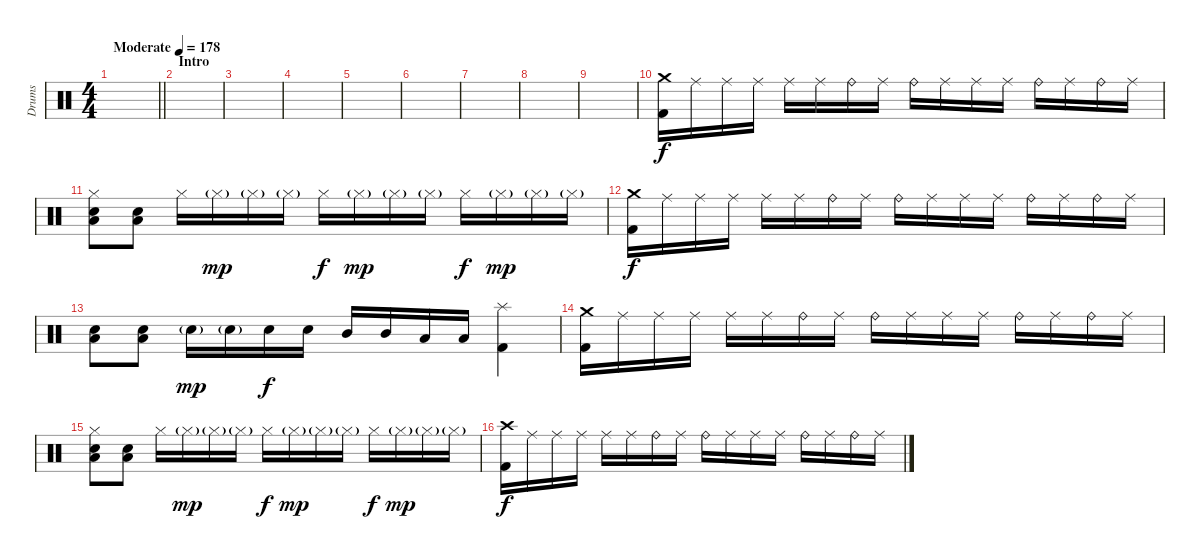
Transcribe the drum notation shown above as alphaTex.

\track ("Drums" "Drums") {instrument percussion}
\staff {score}
\articulation defaults
\ts (4 4)
\tempo (178 "Moderate")
\clef neutral
\barLineRight lightlight
\ks c
|
\section ("" "Intro")
|
|
|
|
|
|
|
|
("Crash medium (hit)" "Kick (hit) 2").16 "Ride (middle)".16 "Ride (middle)".16 "Ride (middle)".16 "Ride (middle)".16 "Ride (middle)".16 "Ride (bell)".16 "Ride (middle)".16 "Ride (bell)".16 "Ride (middle)".16 "Ride (middle)".16 "Ride (middle)".16 "Ride (bell)".16 "Ride (middle)".16 "Ride (bell)".16 "Ride (middle)".16 |
("Hi-Hat (closed)" "Low Floor Tom (hit)" "Snare (hit) 2").8 ("Low Floor Tom (hit)" "Snare (hit) 2").8 "Hi-Hat (closed)".16 "Hi-Hat (closed)"{g}.16{dy mp} "Hi-Hat (closed)"{g}.16 "Hi-Hat (closed)"{g}.16 "Hi-Hat (closed)".16{dy f} "Hi-Hat (closed)"{g}.16{dy mp} "Hi-Hat (closed)"{g}.16 "Hi-Hat (closed)"{g}.16 "Hi-Hat (closed)".16{dy f} "Hi-Hat (closed)"{g}.16{dy mp} "Hi-Hat (closed)"{g}.16 "Hi-Hat (closed)"{g}.16 |
("Crash medium (hit)" "Kick (hit) 2").16{dy f} "Ride (middle)".16 "Ride (middle)".16 "Ride (middle)".16 "Ride (middle)".16 "Ride (middle)".16 "Ride (bell)".16 "Ride (middle)".16 "Ride (bell)".16 "Ride (middle)".16 "Ride (middle)".16 "Ride (middle)".16 "Ride (bell)".16 "Ride (middle)".16 "Ride (bell)".16 "Ride (middle)".16 |
("Low Floor Tom (hit)" "Snare (hit) 2").8 ("Low Floor Tom (hit)" "Snare (hit) 2").8 "Snare (hit) 2"{g}.16{dy mp} "Snare (hit) 2"{g}.16 "Snare (hit) 2".16{dy f} "Snare (hit) 2".16 "Mid Tom (hit)".16 "Mid Tom (hit)".16 "Low Tom (hit)".16 "Low Tom (hit)".16 ("Splash (hit)" "Kick (hit) 2").4 |
("Crash medium (hit)" "Kick (hit) 2").16 "Ride (middle)".16 "Ride (middle)".16 "Ride (middle)".16 "Ride (middle)".16 "Ride (middle)".16 "Ride (bell)".16 "Ride (middle)".16 "Ride (bell)".16 "Ride (middle)".16 "Ride (middle)".16 "Ride (middle)".16 "Ride (bell)".16 "Ride (middle)".16 "Ride (bell)".16 "Ride (middle)".16 |
("Hi-Hat (closed)" "Low Floor Tom (hit)" "Snare (hit) 2").8 ("Low Floor Tom (hit)" "Snare (hit) 2").8 "Hi-Hat (closed)".16 "Hi-Hat (closed)"{g}.16{dy mp} "Hi-Hat (closed)"{g}.16 "Hi-Hat (closed)"{g}.16 "Hi-Hat (closed)".16{dy f} "Hi-Hat (closed)"{g}.16{dy mp} "Hi-Hat (closed)"{g}.16 "Hi-Hat (closed)"{g}.16 "Hi-Hat (closed)".16{dy f} "Hi-Hat (closed)"{g}.16{dy mp} "Hi-Hat (closed)"{g}.16 "Hi-Hat (closed)"{g}.16 |
("Crash high (hit)" "Kick (hit) 2").16{dy f} "Ride (middle)".16 "Ride (middle)".16 "Ride (middle)".16 "Ride (middle)".16 "Ride (middle)".16 "Ride (bell)".16 "Ride (middle)".16 "Ride (bell)".16 "Ride (middle)".16 "Ride (middle)".16 "Ride (middle)".16 "Ride (bell)".16 "Ride (middle)".16 "Ride (bell)".16 "Ride (middle)".16
